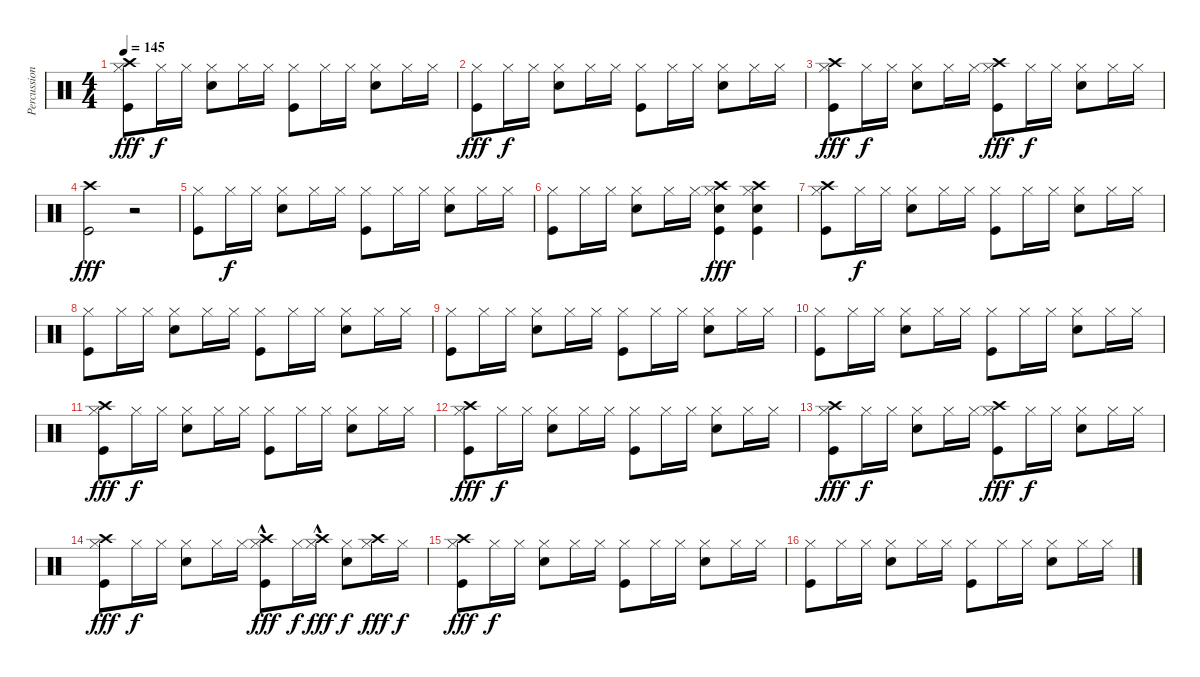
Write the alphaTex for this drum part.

\track ("Percussion" "Percussion") {instrument percussion}
\staff {score}
\articulation defaults
\ts (4 4)
\tempo 145
\clef neutral
\ks c
("Crash high (hit)" "Kick (hit)" "Hi-Hat (closed)").8{dy fff} "Hi-Hat (closed)".16{dy f} "Hi-Hat (closed)".16 ("Snare (hit) 2" "Hi-Hat (closed)").8 "Hi-Hat (closed)".16 "Hi-Hat (closed)".16 ("Kick (hit)" "Hi-Hat (closed)").8 "Hi-Hat (closed)".16 "Hi-Hat (closed)".16 ("Snare (hit) 2" "Hi-Hat (closed)").8 "Hi-Hat (closed)".16 "Hi-Hat (closed)".16 |
("Kick (hit)" "Hi-Hat (closed)").8{dy fff} "Hi-Hat (closed)".16{dy f} "Hi-Hat (closed)".16 ("Snare (hit) 2" "Hi-Hat (closed)").8 "Hi-Hat (closed)".16 "Hi-Hat (closed)".16 ("Kick (hit)" "Hi-Hat (closed)").8 "Hi-Hat (closed)".16 "Hi-Hat (closed)".16 ("Snare (hit) 2" "Hi-Hat (closed)").8 "Hi-Hat (closed)".16 "Hi-Hat (closed)".16 |
("Crash high (hit)" "Kick (hit)" "Hi-Hat (closed)").8{dy fff} "Hi-Hat (closed)".16{dy f} "Hi-Hat (closed)".16 ("Snare (hit) 2" "Hi-Hat (closed)").8 "Hi-Hat (closed)".16 "Hi-Hat (closed)".16 ("Crash high (hit)" "Kick (hit)" "Hi-Hat (closed)").8{dy fff} "Hi-Hat (closed)".16{dy f} "Hi-Hat (closed)".16 ("Snare (hit) 2" "Hi-Hat (closed)").8 "Hi-Hat (closed)".16 "Hi-Hat (closed)".16 |
("Crash high (hit)" "Kick (hit)").2{dy fff} r.2 |
("Kick (hit)" "Hi-Hat (closed)").8 "Hi-Hat (closed)".16{dy f} "Hi-Hat (closed)".16 ("Snare (hit) 2" "Hi-Hat (closed)").8 "Hi-Hat (closed)".16 "Hi-Hat (closed)".16 ("Kick (hit)" "Hi-Hat (closed)").8 "Hi-Hat (closed)".16 "Hi-Hat (closed)".16 ("Snare (hit) 2" "Hi-Hat (closed)").8 "Hi-Hat (closed)".16 "Hi-Hat (closed)".16 |
("Kick (hit)" "Hi-Hat (closed)").8 "Hi-Hat (closed)".16 "Hi-Hat (closed)".16 ("Snare (hit) 2" "Hi-Hat (closed)").8 "Hi-Hat (closed)".16 "Hi-Hat (closed)".16 ("Hi-Hat (closed)" "Crash high (hit)" "Snare (hit) 2" "Kick (hit)").4{dy fff} ("Hi-Hat (closed)" "Crash high (hit)" "Snare (hit) 2" "Kick (hit)").4 |
("Crash high (hit)" "Hi-Hat (closed)" "Kick (hit)").8 "Hi-Hat (closed)".16{dy f} "Hi-Hat (closed)".16 ("Hi-Hat (closed)" "Snare (hit) 2").8 "Hi-Hat (closed)".16 "Hi-Hat (closed)".16 ("Hi-Hat (closed)" "Kick (hit)").8 "Hi-Hat (closed)".16 "Hi-Hat (closed)".16 ("Hi-Hat (closed)" "Snare (hit) 2").8 "Hi-Hat (closed)".16 "Hi-Hat (closed)".16 |
("Kick (hit)" "Hi-Hat (closed)").8 "Hi-Hat (closed)".16 "Hi-Hat (closed)".16 ("Snare (hit) 2" "Hi-Hat (closed)").8 "Hi-Hat (closed)".16 "Hi-Hat (closed)".16 ("Kick (hit)" "Hi-Hat (closed)").8 "Hi-Hat (closed)".16 "Hi-Hat (closed)".16 ("Snare (hit) 2" "Hi-Hat (closed)").8 "Hi-Hat (closed)".16 "Hi-Hat (closed)".16 |
("Kick (hit)" "Hi-Hat (closed)").8 "Hi-Hat (closed)".16 "Hi-Hat (closed)".16 ("Snare (hit) 2" "Hi-Hat (closed)").8 "Hi-Hat (closed)".16 "Hi-Hat (closed)".16 ("Kick (hit)" "Hi-Hat (closed)").8 "Hi-Hat (closed)".16 "Hi-Hat (closed)".16 ("Snare (hit) 2" "Hi-Hat (closed)").8 "Hi-Hat (closed)".16 "Hi-Hat (closed)".16 |
("Kick (hit)" "Hi-Hat (closed)").8 "Hi-Hat (closed)".16 "Hi-Hat (closed)".16 ("Snare (hit) 2" "Hi-Hat (closed)").8 "Hi-Hat (closed)".16 "Hi-Hat (closed)".16 ("Kick (hit)" "Hi-Hat (closed)").8 "Hi-Hat (closed)".16 "Hi-Hat (closed)".16 ("Snare (hit) 2" "Hi-Hat (closed)").8 "Hi-Hat (closed)".16 "Hi-Hat (closed)".16 |
("Crash high (hit)" "Kick (hit)" "Hi-Hat (closed)").8{dy fff} "Hi-Hat (closed)".16{dy f} "Hi-Hat (closed)".16 ("Snare (hit) 2" "Hi-Hat (closed)").8 "Hi-Hat (closed)".16 "Hi-Hat (closed)".16 ("Kick (hit)" "Hi-Hat (closed)").8 "Hi-Hat (closed)".16 "Hi-Hat (closed)".16 ("Snare (hit) 2" "Hi-Hat (closed)").8 "Hi-Hat (closed)".16 "Hi-Hat (closed)".16 |
("Crash high (hit)" "Kick (hit)" "Hi-Hat (closed)").8{dy fff} "Hi-Hat (closed)".16{dy f} "Hi-Hat (closed)".16 ("Snare (hit) 2" "Hi-Hat (closed)").8 "Hi-Hat (closed)".16 "Hi-Hat (closed)".16 ("Kick (hit)" "Hi-Hat (closed)").8 "Hi-Hat (closed)".16 "Hi-Hat (closed)".16 ("Snare (hit) 2" "Hi-Hat (closed)").8 "Hi-Hat (closed)".16 "Hi-Hat (closed)".16 |
("Crash high (hit)" "Kick (hit)" "Hi-Hat (closed)").8{dy fff} "Hi-Hat (closed)".16{dy f} "Hi-Hat (closed)".16 ("Snare (hit) 2" "Hi-Hat (closed)").8 "Hi-Hat (closed)".16 "Hi-Hat (closed)".16 ("Crash high (hit)" "Kick (hit)" "Hi-Hat (closed)").8{dy fff} "Hi-Hat (closed)".16{dy f} "Hi-Hat (closed)".16 ("Snare (hit) 2" "Hi-Hat (closed)").8 "Hi-Hat (closed)".16 "Hi-Hat (closed)".16 |
("Crash high (hit)" "Kick (hit)" "Hi-Hat (closed)").8{dy fff} "Hi-Hat (closed)".16{dy f} "Hi-Hat (closed)".16 ("Snare (hit) 2" "Hi-Hat (closed)").8 "Hi-Hat (closed)".16 "Hi-Hat (closed)".16 ("Crash high (hit)"{hac} "Kick (hit)" "Hi-Hat (closed)").8{dy fff} "Hi-Hat (closed)".16{dy f} ("Crash high (hit)"{hac} "Hi-Hat (closed)").16{dy fff} ("Snare (hit) 2" "Hi-Hat (closed)").8{dy f} ("Crash high (hit)" "Hi-Hat (closed)").16{dy fff} "Hi-Hat (closed)".16{dy f} |
("Crash high (hit)" "Hi-Hat (closed)" "Kick (hit)").8{dy fff} "Hi-Hat (closed)".16{dy f} "Hi-Hat (closed)".16 ("Hi-Hat (closed)" "Snare (hit) 2").8 "Hi-Hat (closed)".16 "Hi-Hat (closed)".16 ("Hi-Hat (closed)" "Kick (hit)").8 "Hi-Hat (closed)".16 "Hi-Hat (closed)".16 ("Hi-Hat (closed)" "Snare (hit) 2").8 "Hi-Hat (closed)".16 "Hi-Hat (closed)".16 |
("Kick (hit)" "Hi-Hat (closed)").8 "Hi-Hat (closed)".16 "Hi-Hat (closed)".16 ("Snare (hit) 2" "Hi-Hat (closed)").8 "Hi-Hat (closed)".16 "Hi-Hat (closed)".16 ("Kick (hit)" "Hi-Hat (closed)").8 "Hi-Hat (closed)".16 "Hi-Hat (closed)".16 ("Snare (hit) 2" "Hi-Hat (closed)").8 "Hi-Hat (closed)".16 "Hi-Hat (closed)".16
